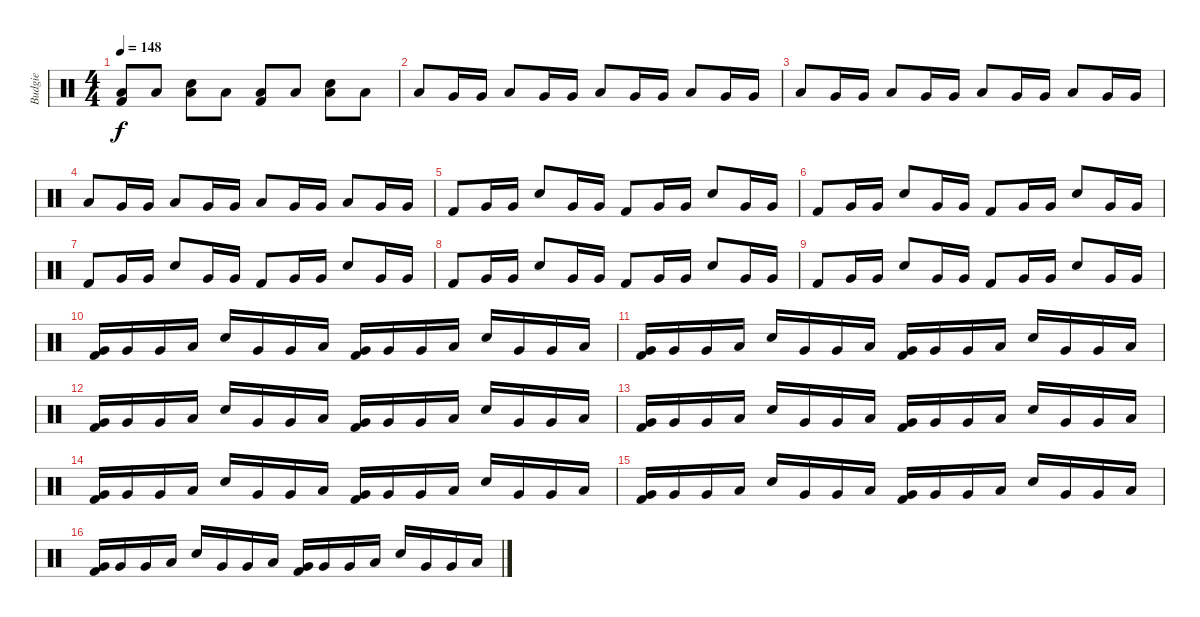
\track ("Budgie" "Budgie") {instrument percussion}
\staff {score}
\articulation defaults
\ts (4 4)
\tempo 148
\clef neutral
\ks c
("Low Floor Tom (hit)" "Kick (hit) 2").8{dy f} "Low Floor Tom (hit)".8 ("Snare (hit) 2" "Low Floor Tom (hit)").8 "Low Floor Tom (hit)".8 ("Low Floor Tom (hit)" "Kick (hit) 2").8 "Low Floor Tom (hit)".8 ("Snare (hit) 2" "Low Floor Tom (hit)").8 "Low Floor Tom (hit)".8 |
"Low Floor Tom (hit)".8 "Very Low Tom (hit)".16 "Very Low Tom (hit)".16 "Low Tom (hit)".8 "Very Low Tom (hit)".16 "Very Low Tom (hit)".16 "Low Floor Tom (hit)".8 "Very Low Tom (hit)".16 "Very Low Tom (hit)".16 "Low Tom (hit)".8 "Very Low Tom (hit)".16 "Very Low Tom (hit)".16 |
"Low Floor Tom (hit)".8 "Very Low Tom (hit)".16 "Very Low Tom (hit)".16 "Low Tom (hit)".8 "Very Low Tom (hit)".16 "Very Low Tom (hit)".16 "Low Floor Tom (hit)".8 "Very Low Tom (hit)".16 "Very Low Tom (hit)".16 "Low Tom (hit)".8 "Very Low Tom (hit)".16 "Very Low Tom (hit)".16 |
"Low Floor Tom (hit)".8 "Very Low Tom (hit)".16 "Very Low Tom (hit)".16 "Low Tom (hit)".8 "Very Low Tom (hit)".16 "Very Low Tom (hit)".16 "Low Floor Tom (hit)".8 "Very Low Tom (hit)".16 "Very Low Tom (hit)".16 "Low Tom (hit)".8 "Very Low Tom (hit)".16 "Very Low Tom (hit)".16 |
"Kick (hit) 2".8 "Very Low Tom (hit)".16 "Very Low Tom (hit)".16 "Snare (hit) 2".8 "Very Low Tom (hit)".16 "Very Low Tom (hit)".16 "Kick (hit) 2".8 "Very Low Tom (hit)".16 "Very Low Tom (hit)".16 "Snare (hit) 2".8 "Very Low Tom (hit)".16 "Very Low Tom (hit)".16 |
"Kick (hit) 2".8 "Very Low Tom (hit)".16 "Very Low Tom (hit)".16 "Snare (hit) 2".8 "Very Low Tom (hit)".16 "Very Low Tom (hit)".16 "Kick (hit) 2".8 "Very Low Tom (hit)".16 "Very Low Tom (hit)".16 "Snare (hit) 2".8 "Very Low Tom (hit)".16 "Very Low Tom (hit)".16 |
"Kick (hit) 2".8 "Very Low Tom (hit)".16 "Very Low Tom (hit)".16 "Snare (hit) 2".8 "Very Low Tom (hit)".16 "Very Low Tom (hit)".16 "Kick (hit) 2".8 "Very Low Tom (hit)".16 "Very Low Tom (hit)".16 "Snare (hit) 2".8 "Very Low Tom (hit)".16 "Very Low Tom (hit)".16 |
"Kick (hit) 2".8 "Very Low Tom (hit)".16 "Very Low Tom (hit)".16 "Snare (hit) 2".8 "Very Low Tom (hit)".16 "Very Low Tom (hit)".16 "Kick (hit) 2".8 "Very Low Tom (hit)".16 "Very Low Tom (hit)".16 "Snare (hit) 2".8 "Very Low Tom (hit)".16 "Very Low Tom (hit)".16 |
"Kick (hit) 2".8 "Very Low Tom (hit)".16 "Very Low Tom (hit)".16 "Snare (hit) 2".8 "Very Low Tom (hit)".16 "Very Low Tom (hit)".16 "Kick (hit) 2".8 "Very Low Tom (hit)".16 "Very Low Tom (hit)".16 "Snare (hit) 2".8 "Very Low Tom (hit)".16 "Very Low Tom (hit)".16 |
("Very Low Tom (hit)" "Kick (hit) 2").16 "Very Low Tom (hit)".16 "Very Low Tom (hit)".16 "Low Floor Tom (hit)".16 "Snare (hit) 2".16 "Very Low Tom (hit)".16 "Very Low Tom (hit)".16 "Low Floor Tom (hit)".16 ("Very Low Tom (hit)" "Kick (hit) 2").16 "Very Low Tom (hit)".16 "Very Low Tom (hit)".16 "Low Floor Tom (hit)".16 "Snare (hit) 2".16 "Very Low Tom (hit)".16 "Very Low Tom (hit)".16 "Low Floor Tom (hit)".16 |
("Very Low Tom (hit)" "Kick (hit) 2").16 "Very Low Tom (hit)".16 "Very Low Tom (hit)".16 "Low Floor Tom (hit)".16 "Snare (hit) 2".16 "Very Low Tom (hit)".16 "Very Low Tom (hit)".16 "Low Floor Tom (hit)".16 ("Very Low Tom (hit)" "Kick (hit) 2").16 "Very Low Tom (hit)".16 "Very Low Tom (hit)".16 "Low Floor Tom (hit)".16 "Snare (hit) 2".16 "Very Low Tom (hit)".16 "Very Low Tom (hit)".16 "Low Floor Tom (hit)".16 |
("Very Low Tom (hit)" "Kick (hit) 2").16 "Very Low Tom (hit)".16 "Very Low Tom (hit)".16 "Low Floor Tom (hit)".16 "Snare (hit) 2".16 "Very Low Tom (hit)".16 "Very Low Tom (hit)".16 "Low Floor Tom (hit)".16 ("Very Low Tom (hit)" "Kick (hit) 2").16 "Very Low Tom (hit)".16 "Very Low Tom (hit)".16 "Low Floor Tom (hit)".16 "Snare (hit) 2".16 "Very Low Tom (hit)".16 "Very Low Tom (hit)".16 "Low Floor Tom (hit)".16 |
("Very Low Tom (hit)" "Kick (hit) 2").16 "Very Low Tom (hit)".16 "Very Low Tom (hit)".16 "Low Floor Tom (hit)".16 "Snare (hit) 2".16 "Very Low Tom (hit)".16 "Very Low Tom (hit)".16 "Low Floor Tom (hit)".16 ("Very Low Tom (hit)" "Kick (hit) 2").16 "Very Low Tom (hit)".16 "Very Low Tom (hit)".16 "Low Floor Tom (hit)".16 "Snare (hit) 2".16 "Very Low Tom (hit)".16 "Very Low Tom (hit)".16 "Low Floor Tom (hit)".16 |
("Very Low Tom (hit)" "Kick (hit) 2").16 "Very Low Tom (hit)".16 "Very Low Tom (hit)".16 "Low Floor Tom (hit)".16 "Snare (hit) 2".16 "Very Low Tom (hit)".16 "Very Low Tom (hit)".16 "Low Floor Tom (hit)".16 ("Very Low Tom (hit)" "Kick (hit) 2").16 "Very Low Tom (hit)".16 "Very Low Tom (hit)".16 "Low Floor Tom (hit)".16 "Snare (hit) 2".16 "Very Low Tom (hit)".16 "Very Low Tom (hit)".16 "Low Floor Tom (hit)".16 |
("Very Low Tom (hit)" "Kick (hit) 2").16 "Very Low Tom (hit)".16 "Very Low Tom (hit)".16 "Low Floor Tom (hit)".16 "Snare (hit) 2".16 "Very Low Tom (hit)".16 "Very Low Tom (hit)".16 "Low Floor Tom (hit)".16 ("Very Low Tom (hit)" "Kick (hit) 2").16 "Very Low Tom (hit)".16 "Very Low Tom (hit)".16 "Low Floor Tom (hit)".16 "Snare (hit) 2".16 "Very Low Tom (hit)".16 "Very Low Tom (hit)".16 "Low Floor Tom (hit)".16 |
("Very Low Tom (hit)" "Kick (hit) 2").16 "Very Low Tom (hit)".16 "Very Low Tom (hit)".16 "Low Floor Tom (hit)".16 "Snare (hit) 2".16 "Very Low Tom (hit)".16 "Very Low Tom (hit)".16 "Low Floor Tom (hit)".16 ("Very Low Tom (hit)" "Kick (hit) 2").16 "Very Low Tom (hit)".16 "Very Low Tom (hit)".16 "Low Floor Tom (hit)".16 "Snare (hit) 2".16 "Very Low Tom (hit)".16 "Very Low Tom (hit)".16 "Low Floor Tom (hit)".16
